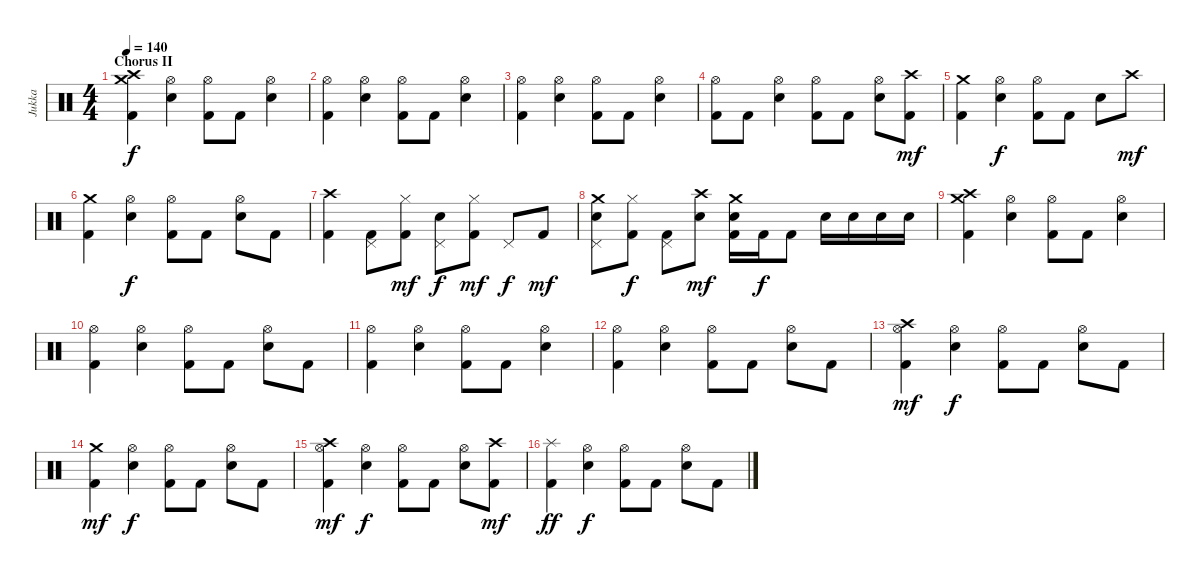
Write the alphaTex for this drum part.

\track ("Jukka" "Jukka") {instrument percussion}
\staff {score}
\articulation defaults
\ts (4 4)
\section ("" "Chorus II")
\tempo 140
\clef neutral
\ks aminor
("Crash medium (hit)" "Crash high (hit)" "Kick (hit) 2").4{dy f} ("Hi-Hat (open)" "Electric Snare (hit)").4 ("Hi-Hat (open)" "Kick (hit) 2").8 "Kick (hit) 2".8 ("Hi-Hat (open)" "Electric Snare (hit)").4 |
("Hi-Hat (open)" "Kick (hit) 2").4 ("Hi-Hat (open)" "Electric Snare (hit)").4 ("Hi-Hat (open)" "Kick (hit) 2").8 "Kick (hit) 2".8 ("Hi-Hat (open)" "Electric Snare (hit)").4 |
("Hi-Hat (open)" "Kick (hit) 2").4 ("Hi-Hat (open)" "Electric Snare (hit)").4 ("Hi-Hat (open)" "Kick (hit) 2").8 "Kick (hit) 2".8 ("Hi-Hat (open)" "Electric Snare (hit)").4 |
("Hi-Hat (open)" "Kick (hit) 2").8 "Kick (hit) 2".8 ("Hi-Hat (open)" "Electric Snare (hit)").4 ("Hi-Hat (open)" "Kick (hit) 2").8 "Kick (hit) 2".8 ("Hi-Hat (open)" "Electric Snare (hit)").8 ("Crash high (hit)" "Kick (hit) 2").8{dy mf} |
("Crash medium (hit)" "Kick (hit) 2").4 ("Hi-Hat (open)" "Electric Snare (hit)").4{dy f} ("Hi-Hat (open)" "Kick (hit) 2").8 "Kick (hit) 2".8 "Electric Snare (hit)".8 "Crash high (hit)".8{dy mf} |
("Crash medium (hit)" "Kick (hit) 2").4 ("Hi-Hat (open)" "Electric Snare (hit)").4{dy f} ("Hi-Hat (open)" "Kick (hit) 2").8 "Kick (hit) 2".8 ("Hi-Hat (open)" "Electric Snare (hit)").8 "Kick (hit) 2".8 |
("Crash high (hit)" "Kick (hit) 2").4 ("Pedal Hi-Hat (hit)" "Kick (hit) 2").8 ("Hi-Hat (closed)" "Kick (hit) 2").8{dy mf} ("Pedal Hi-Hat (hit)" "Electric Snare (hit)").8{dy f} ("Hi-Hat (closed)" "Kick (hit) 2").8{dy mf} "Pedal Hi-Hat (hit)".8{dy f} "Kick (hit) 2".8{dy mf} |
("Pedal Hi-Hat (hit)" "Crash medium (hit)" "Electric Snare (hit)").8 ("Hi-Hat (closed)" "Kick (hit) 2").8{dy f} ("Pedal Hi-Hat (hit)" "Kick (hit) 2").8 ("Crash high (hit)" "Electric Snare (hit)").8{dy mf} ("Crash medium (hit)" "Electric Snare (hit)" "Kick (hit) 2").16 "Kick (hit) 2".16{dy f} "Kick (hit) 2".8 "Electric Snare (hit)".16 "Electric Snare (hit)".16 "Electric Snare (hit)".16 "Electric Snare (hit)".16 |
("Crash medium (hit)" "Crash high (hit)" "Kick (hit) 2").4 ("Hi-Hat (open)" "Electric Snare (hit)").4 ("Hi-Hat (open)" "Kick (hit) 2").8 "Kick (hit) 2".8 ("Hi-Hat (open)" "Electric Snare (hit)").4 |
("Hi-Hat (open)" "Kick (hit) 2").4 ("Hi-Hat (open)" "Electric Snare (hit)").4 ("Hi-Hat (open)" "Kick (hit) 2").8 "Kick (hit) 2".8 ("Hi-Hat (open)" "Electric Snare (hit)").8 "Kick (hit) 2".8 |
("Hi-Hat (open)" "Kick (hit) 2").4 ("Hi-Hat (open)" "Electric Snare (hit)").4 ("Hi-Hat (open)" "Kick (hit) 2").8 "Kick (hit) 2".8 ("Hi-Hat (open)" "Electric Snare (hit)").4 |
("Hi-Hat (open)" "Kick (hit) 2").4 ("Hi-Hat (open)" "Electric Snare (hit)").4 ("Hi-Hat (open)" "Kick (hit) 2").8 "Kick (hit) 2".8 ("Hi-Hat (open)" "Electric Snare (hit)").8 "Kick (hit) 2".8 |
("Crash high (hit)" "Hi-Hat (open)" "Kick (hit) 2").4{dy mf} ("Hi-Hat (open)" "Electric Snare (hit)").4{dy f} ("Hi-Hat (open)" "Kick (hit) 2").8 "Kick (hit) 2".8 ("Hi-Hat (open)" "Electric Snare (hit)").8 "Kick (hit) 2".8 |
("Crash medium (hit)" "Kick (hit) 2").4{dy mf} ("Hi-Hat (open)" "Electric Snare (hit)").4{dy f} ("Hi-Hat (open)" "Kick (hit) 2").8 "Kick (hit) 2".8 ("Hi-Hat (open)" "Electric Snare (hit)").8 "Kick (hit) 2".8 |
("Crash high (hit)" "Hi-Hat (open)" "Kick (hit) 2").4{dy mf} ("Hi-Hat (open)" "Electric Snare (hit)").4{dy f} ("Hi-Hat (open)" "Kick (hit) 2").8 "Kick (hit) 2".8 ("Hi-Hat (open)" "Electric Snare (hit)").8 ("Crash high (hit)" "Kick (hit) 2").8{dy mf} |
("Splash (hit)" "Kick (hit) 2").4{dy ff} ("Hi-Hat (open)" "Electric Snare (hit)").4{dy f} ("Hi-Hat (open)" "Kick (hit) 2").8 "Kick (hit) 2".8 ("Hi-Hat (open)" "Electric Snare (hit)").8 "Kick (hit) 2".8
